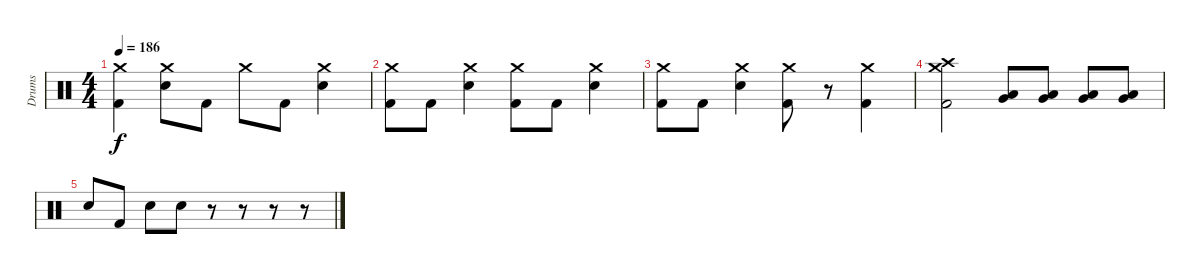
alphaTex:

\track ("Drums" "Drums") {instrument percussion}
\staff {score}
\articulation defaults
\ts (4 4)
\tempo 186
\clef neutral
\ks c
("Crash medium (hit)" "Kick (hit) 2").4{dy f} ("Crash medium (hit)" "Snare (hit) 2").8 "Kick (hit) 2".8 "Crash medium (hit)".8 "Kick (hit) 2".8 ("Crash medium (hit)" "Snare (hit) 2").4 |
("Crash medium (hit)" "Kick (hit) 2").8 "Kick (hit) 2".8 ("Crash medium (hit)" "Snare (hit) 2").4 ("Crash medium (hit)" "Kick (hit) 2").8 "Kick (hit) 2".8 ("Crash medium (hit)" "Snare (hit) 2").4 |
("Crash medium (hit)" "Kick (hit) 2").8 "Kick (hit) 2".8 ("Crash medium (hit)" "Snare (hit) 2").4 ("Crash medium (hit)" "Kick (hit) 2").8 r.8 ("Crash medium (hit)" "Kick (hit) 2").4 |
("Crash medium (hit)" "Crash high (hit)" "Kick (hit) 2").2 ("Very Low Tom (hit)" "Low Floor Tom (hit)").8 ("Very Low Tom (hit)" "Low Floor Tom (hit)").8 ("Very Low Tom (hit)" "Low Floor Tom (hit)").8 ("Very Low Tom (hit)" "Low Floor Tom (hit)").8 |
"Snare (hit) 2".8 "Kick (hit) 2".8 "Snare (hit) 2".8 "Snare (hit) 2".8 r.8 r.8 r.8 r.8
